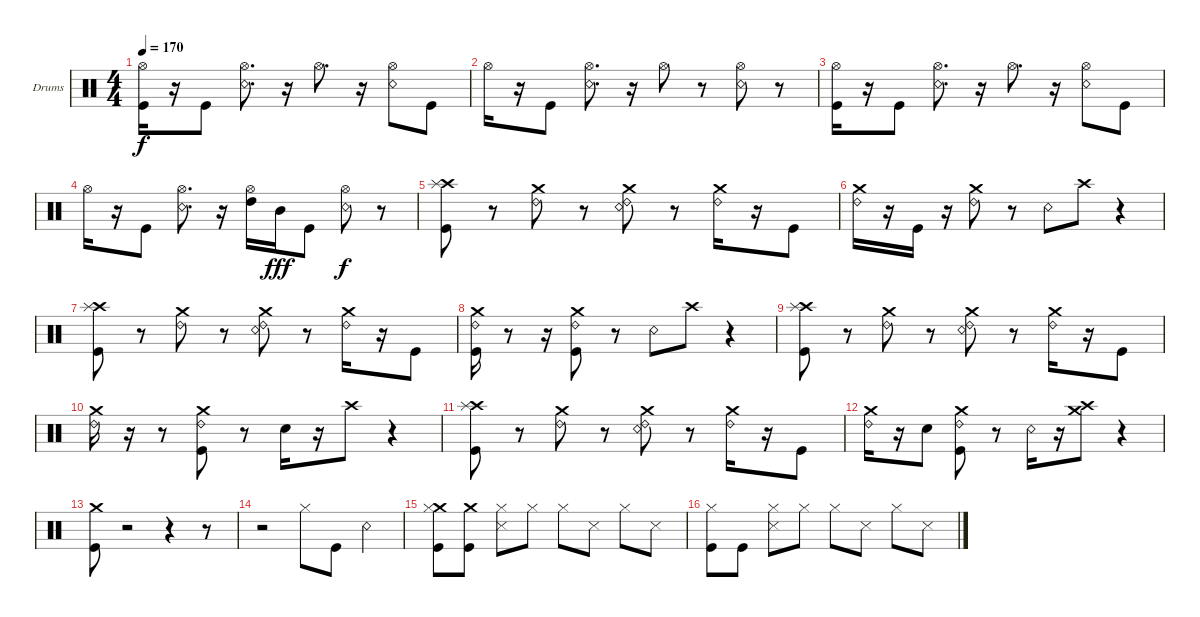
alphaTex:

\bracketExtendMode groupsimilarinstruments
\firstSystemTrackNameOrientation horizontal
\otherSystemsTrackNameOrientation horizontal
\track ("Drumkit" "Drums") {instrument percussion}
\staff {score}
\articulation defaults
\ts (4 4)
\tempo 170
\clef neutral
\ks c
("Kick (hit)" "Hi-Hat (open)").16{dy f} r.16 "Kick (hit)".8 ("Snare (rim shot)" "Hi-Hat (open)").8{d} r.16 "Hi-Hat (open)".8{d} r.16 ("Snare (rim shot)" "Hi-Hat (open)").8 "Kick (hit)".8 |
"Hi-Hat (open)".16 r.16 "Kick (hit)".8 ("Snare (rim shot)" "Hi-Hat (open)").8{d} r.16 "Hi-Hat (open)".8 r.8 ("Snare (rim shot)" "Hi-Hat (open)").8 r.8 |
("Kick (hit)" "Hi-Hat (open)").16 r.16 "Kick (hit)".8 ("Snare (rim shot)" "Hi-Hat (open)").8{d} r.16 "Hi-Hat (open)".8{d} r.16 ("Snare (rim shot)" "Hi-Hat (open)").8 "Kick (hit)".8 |
"Hi-Hat (open)".16 r.16 "Kick (hit)".8 ("Snare (rim shot)" "Hi-Hat (open)").8{d} r.16 ("Hi-Hat (open)" "High Tom (hit)").16 "Mid Tom (hit)".16{dy fff} "Kick (hit)".8 ("Snare (rim shot)" "Hi-Hat (open)").8{dy f} r.8 |
("Kick (hit)" "Crash high (hit)" "Splash (hit)").8 r.8 ("Ride (bell) 2" "Crash medium (hit)").8 r.8 ("Snare (rim shot)" "Ride (bell) 2" "Crash medium (hit)").8 r.8 ("Ride (bell) 2" "Crash medium (hit)").16 r.16 "Kick (hit)".8 |
("Ride (bell) 2" "Crash medium (hit)").16 r.16 "Kick (hit)".16 r.16 ("Ride (bell) 2" "Crash medium (hit)").8 r.8 "Snare (rim shot)".8 "Crash high (hit)".8 r.4 |
("Kick (hit)" "Crash high (hit)" "Splash (hit)").8 r.8 ("Ride (bell) 2" "Crash medium (hit)").8 r.8 ("Snare (rim shot)" "Ride (bell) 2" "Crash medium (hit)").8 r.8 ("Ride (bell) 2" "Crash medium (hit)").16 r.16 "Kick (hit)".8 |
("Kick (hit)" "Ride (bell) 2" "Crash medium (hit)").16 r.8 r.16 ("Kick (hit)" "Ride (bell) 2" "Crash medium (hit)").8 r.8 "Snare (rim shot)".8 "Crash high (hit)".8 r.4 |
("Kick (hit)" "Crash high (hit)" "Splash (hit)").8 r.8 ("Ride (bell) 2" "Crash medium (hit)").8 r.8 ("Snare (rim shot)" "Ride (bell) 2" "Crash medium (hit)").8 r.8 ("Ride (bell) 2" "Crash medium (hit)").16 r.16 "Kick (hit)".8 |
("Ride (bell) 2" "Crash medium (hit)").16 r.16 r.8 ("Kick (hit)" "Ride (bell) 2" "Crash medium (hit)").8 r.8 "Snare (hit) 2".16 r.16 "Crash high (hit)".8 r.4 |
("Kick (hit)" "Crash high (hit)" "Splash (hit)").8 r.8 ("Ride (bell) 2" "Crash medium (hit)").8 r.8 ("Snare (rim shot)" "Ride (bell) 2" "Crash medium (hit)").8 r.8 ("Ride (bell) 2" "Crash medium (hit)").16 r.16 "Kick (hit)".8 |
("Ride (bell) 2" "Crash medium (hit)").16 r.16 "Snare (hit) 2".8 ("Kick (hit)" "Ride (bell) 2" "Crash medium (hit)").8 r.8 "Snare (rim shot)".16 r.16 ("Crash high (hit)" "Crash medium (hit)").8 r.4 |
("Kick (hit)" "Crash medium (hit)").8 r.2 r.4 r.8 |
r.2 "Hi-Hat (closed)".8 "Kick (hit)".8 "Snare (rim shot)".4 |
("Kick (hit)" "Crash medium (hit)" "Hi-Hat (closed)").8 ("Kick (hit)" "Crash medium (hit)").8 ("Snare (side stick) 3" "Hi-Hat (closed)").8 "Hi-Hat (closed)".8 "Hi-Hat (closed)".8 "Snare (side stick) 3".8 "Hi-Hat (closed)".8 "Snare (side stick) 3".8 |
("Kick (hit)" "Hi-Hat (closed)").8 "Kick (hit)".8 ("Snare (side stick) 3" "Hi-Hat (closed)").8 "Hi-Hat (closed)".8 "Hi-Hat (closed)".8 "Snare (side stick) 3".8 "Hi-Hat (closed)".8 "Snare (side stick) 3".8
